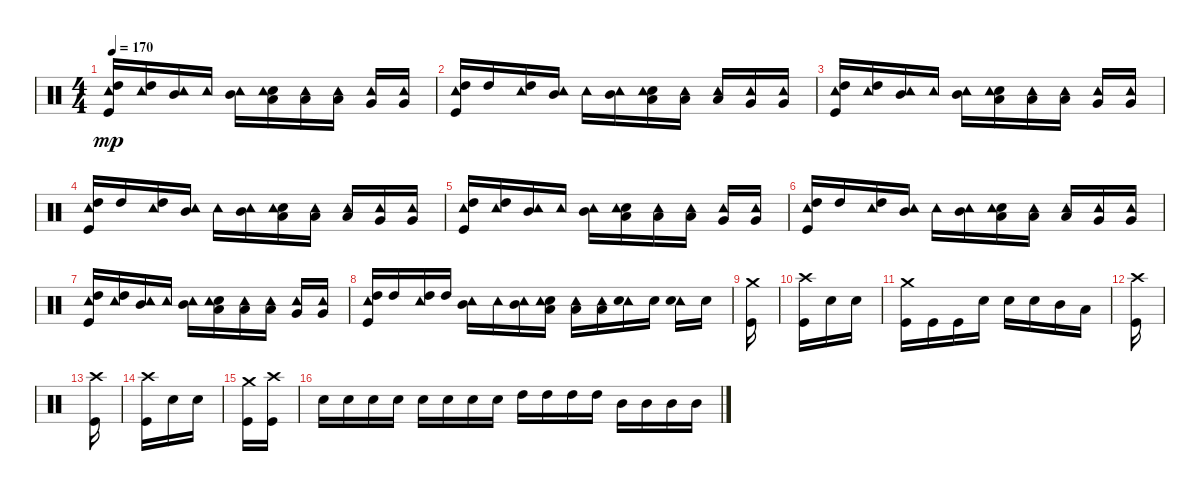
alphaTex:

\track "" {instrument percussion}
\staff {score}
\articulation defaults
\ts (4 4)
\tempo 170
\clef neutral
\ks c
("Kick (hit)" "Tambourine (hit)" "High Tom (hit)").16{dy mp} ("Tambourine (hit)" "High Tom (hit)").16 ("Tambourine (hit)" "Mid Tom (hit)").16 "Tambourine (hit)".16 ("Tambourine (hit)" "Mid Tom (hit)").16 ("Snare (hit) 2" "Tambourine (hit)" "Low Tom (hit)").16 ("Tambourine (hit)" "Low Tom (hit)").16 ("Tambourine (hit)" "Low Tom (hit)").16 ("Tambourine (hit)" "Very Low Tom (hit)").16 ("Tambourine (hit)" "Very Low Tom (hit)").16 |
("Kick (hit)" "Tambourine (hit)" "High Tom (hit)").16 "High Tom (hit)".16 ("Tambourine (hit)" "High Tom (hit)").16 ("Tambourine (hit)" "Mid Tom (hit)").16 "Tambourine (hit)".16 ("Tambourine (hit)" "Mid Tom (hit)").16 ("Snare (hit) 2" "Tambourine (hit)" "Low Tom (hit)").16 ("Tambourine (hit)" "Low Tom (hit)").16 ("Tambourine (hit)" "Low Tom (hit)").16 ("Tambourine (hit)" "Very Low Tom (hit)").16 ("Tambourine (hit)" "Very Low Tom (hit)").16 |
("Kick (hit)" "Tambourine (hit)" "High Tom (hit)").16 ("Tambourine (hit)" "High Tom (hit)").16 ("Tambourine (hit)" "Mid Tom (hit)").16 "Tambourine (hit)".16 ("Tambourine (hit)" "Mid Tom (hit)").16 ("Snare (hit) 2" "Tambourine (hit)" "Low Tom (hit)").16 ("Tambourine (hit)" "Low Tom (hit)").16 ("Tambourine (hit)" "Low Tom (hit)").16 ("Tambourine (hit)" "Very Low Tom (hit)").16 ("Tambourine (hit)" "Very Low Tom (hit)").16 |
("Kick (hit)" "Tambourine (hit)" "High Tom (hit)").16 "High Tom (hit)".16 ("Tambourine (hit)" "High Tom (hit)").16 ("Tambourine (hit)" "Mid Tom (hit)").16 "Tambourine (hit)".16 ("Tambourine (hit)" "Mid Tom (hit)").16 ("Snare (hit) 2" "Tambourine (hit)" "Low Tom (hit)").16 ("Tambourine (hit)" "Low Tom (hit)").16 ("Tambourine (hit)" "Low Tom (hit)").16 ("Tambourine (hit)" "Very Low Tom (hit)").16 ("Tambourine (hit)" "Very Low Tom (hit)").16 |
("Kick (hit)" "Tambourine (hit)" "High Tom (hit)").16 ("Tambourine (hit)" "High Tom (hit)").16 ("Tambourine (hit)" "Mid Tom (hit)").16 "Tambourine (hit)".16 ("Tambourine (hit)" "Mid Tom (hit)").16 ("Snare (hit) 2" "Tambourine (hit)" "Low Tom (hit)").16 ("Tambourine (hit)" "Low Tom (hit)").16 ("Tambourine (hit)" "Low Tom (hit)").16 ("Tambourine (hit)" "Very Low Tom (hit)").16 ("Tambourine (hit)" "Very Low Tom (hit)").16 |
("Kick (hit)" "Tambourine (hit)" "High Tom (hit)").16 "High Tom (hit)".16 ("Tambourine (hit)" "High Tom (hit)").16 ("Tambourine (hit)" "Mid Tom (hit)").16 "Tambourine (hit)".16 ("Tambourine (hit)" "Mid Tom (hit)").16 ("Snare (hit) 2" "Tambourine (hit)" "Low Tom (hit)").16 ("Tambourine (hit)" "Low Tom (hit)").16 ("Tambourine (hit)" "Low Tom (hit)").16 ("Tambourine (hit)" "Very Low Tom (hit)").16 ("Tambourine (hit)" "Very Low Tom (hit)").16 |
("Kick (hit)" "Tambourine (hit)" "High Tom (hit)").16 ("Tambourine (hit)" "High Tom (hit)").16 ("Tambourine (hit)" "Mid Tom (hit)").16 "Tambourine (hit)".16 ("Tambourine (hit)" "Mid Tom (hit)").16 ("Snare (hit) 2" "Tambourine (hit)" "Low Tom (hit)").16 ("Tambourine (hit)" "Low Tom (hit)").16 ("Tambourine (hit)" "Low Tom (hit)").16 ("Tambourine (hit)" "Very Low Tom (hit)").16 ("Tambourine (hit)" "Very Low Tom (hit)").16 |
("Kick (hit)" "Tambourine (hit)" "High Tom (hit)").16 "High Tom (hit)".16 ("Tambourine (hit)" "High Tom (hit)").16 "High Tom (hit)".16 ("Tambourine (hit)" "Mid Tom (hit)").16 "Tambourine (hit)".16 ("Tambourine (hit)" "Mid Tom (hit)").16 ("Snare (hit) 2" "Tambourine (hit)" "Low Tom (hit)").16 ("Tambourine (hit)" "Low Tom (hit)").16 ("Tambourine (hit)" "Low Tom (hit)").16 ("Tambourine (hit)" "Snare (hit) 2").16 "Snare (hit) 2".16 ("Tambourine (hit)" "Snare (hit) 2").16 "Snare (hit) 2".16 |
("Crash medium (hit)" "Kick (hit)").16 |
("Crash high (hit)" "Kick (hit)").16 "Snare (hit) 2".16 "Snare (hit) 2".16 |
("Crash medium (hit)" "Kick (hit)").16 "Kick (hit)".16 "Kick (hit)".16 "Snare (hit) 2".16 "Snare (hit) 2".16 "Snare (hit) 2".16 "Mid Tom (hit)".16 "Low Tom (hit)".16 |
("Crash high (hit)" "Kick (hit)").16 |
("Crash high (hit)" "Kick (hit)").16 |
("Crash high (hit)" "Kick (hit)").16 "Snare (hit) 2".16 "Snare (hit) 2".16 |
("Crash medium (hit)" "Kick (hit)").16 ("Crash high (hit)" "Kick (hit)").16 |
"Snare (hit) 2".16 "Snare (hit) 2".16 "Snare (hit) 2".16 "Snare (hit) 2".16 "Snare (hit) 2".16 "Snare (hit) 2".16 "Snare (hit) 2".16 "Snare (hit) 2".16 "High Tom (hit)".16 "High Tom (hit)".16 "High Tom (hit)".16 "High Tom (hit)".16 "Mid Tom (hit)".16 "Mid Tom (hit)".16 "Mid Tom (hit)".16 "Mid Tom (hit)".16
